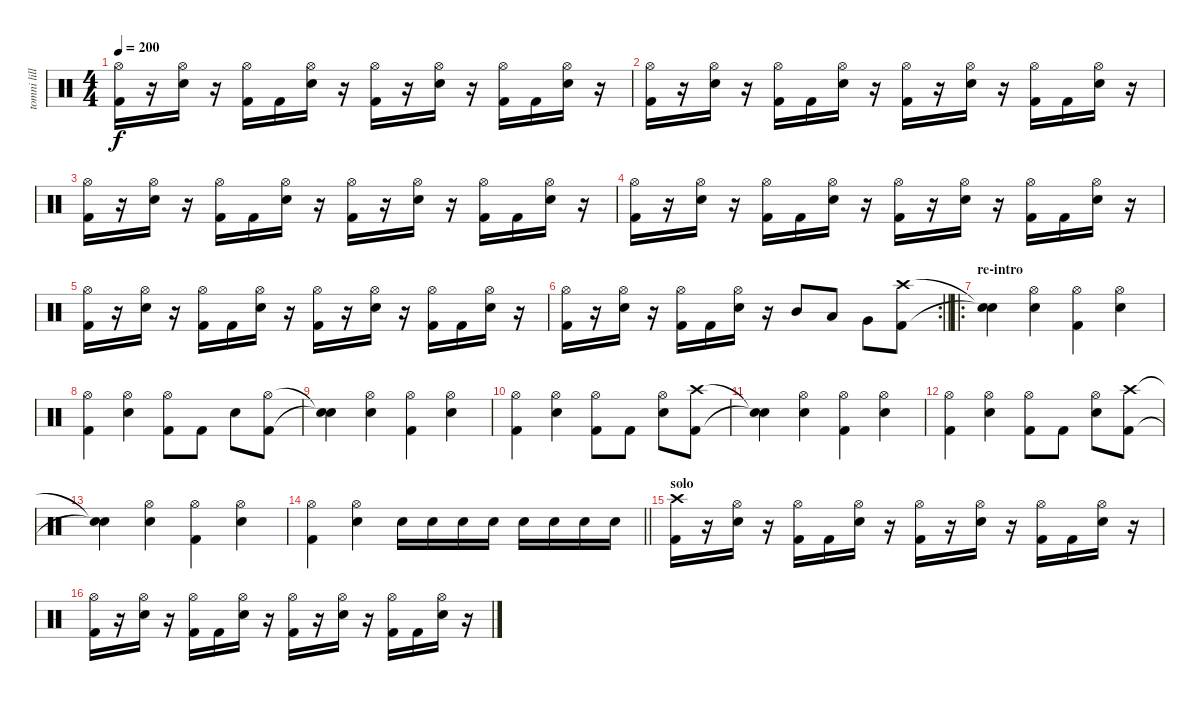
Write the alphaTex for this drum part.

\track ("tomni lillmann" "tomni lill") {instrument percussion}
\staff {score}
\articulation defaults
\ts (4 4)
\tempo 200
\clef neutral
\ks c
("Hi-Hat (open)" "Kick (hit) 2").16{dy f} r.16 ("Hi-Hat (open)" "Snare (hit) 2").16 r.16 ("Hi-Hat (open)" "Kick (hit) 2").16 "Kick (hit) 2".16 ("Hi-Hat (open)" "Snare (hit) 2").16 r.16 ("Hi-Hat (open)" "Kick (hit) 2").16 r.16 ("Hi-Hat (open)" "Snare (hit) 2").16 r.16 ("Hi-Hat (open)" "Kick (hit) 2").16 "Kick (hit) 2".16 ("Hi-Hat (open)" "Snare (hit) 2").16 r.16 |
("Hi-Hat (open)" "Kick (hit) 2").16 r.16 ("Hi-Hat (open)" "Snare (hit) 2").16 r.16 ("Hi-Hat (open)" "Kick (hit) 2").16 "Kick (hit) 2".16 ("Hi-Hat (open)" "Snare (hit) 2").16 r.16 ("Hi-Hat (open)" "Kick (hit) 2").16 r.16 ("Hi-Hat (open)" "Snare (hit) 2").16 r.16 ("Hi-Hat (open)" "Kick (hit) 2").16 "Kick (hit) 2".16 ("Hi-Hat (open)" "Snare (hit) 2").16 r.16 |
("Hi-Hat (open)" "Kick (hit) 2").16 r.16 ("Hi-Hat (open)" "Snare (hit) 2").16 r.16 ("Hi-Hat (open)" "Kick (hit) 2").16 "Kick (hit) 2".16 ("Hi-Hat (open)" "Snare (hit) 2").16 r.16 ("Hi-Hat (open)" "Kick (hit) 2").16 r.16 ("Hi-Hat (open)" "Snare (hit) 2").16 r.16 ("Hi-Hat (open)" "Kick (hit) 2").16 "Kick (hit) 2".16 ("Hi-Hat (open)" "Snare (hit) 2").16 r.16 |
("Hi-Hat (open)" "Kick (hit) 2").16 r.16 ("Hi-Hat (open)" "Snare (hit) 2").16 r.16 ("Hi-Hat (open)" "Kick (hit) 2").16 "Kick (hit) 2".16 ("Hi-Hat (open)" "Snare (hit) 2").16 r.16 ("Hi-Hat (open)" "Kick (hit) 2").16 r.16 ("Hi-Hat (open)" "Snare (hit) 2").16 r.16 ("Hi-Hat (open)" "Kick (hit) 2").16 "Kick (hit) 2".16 ("Hi-Hat (open)" "Snare (hit) 2").16 r.16 |
("Hi-Hat (open)" "Kick (hit) 2").16 r.16 ("Hi-Hat (open)" "Snare (hit) 2").16 r.16 ("Hi-Hat (open)" "Kick (hit) 2").16 "Kick (hit) 2".16 ("Hi-Hat (open)" "Snare (hit) 2").16 r.16 ("Hi-Hat (open)" "Kick (hit) 2").16 r.16 ("Hi-Hat (open)" "Snare (hit) 2").16 r.16 ("Hi-Hat (open)" "Kick (hit) 2").16 "Kick (hit) 2".16 ("Hi-Hat (open)" "Snare (hit) 2").16 r.16 |
\rc 2
\barLineRight lightlight
("Hi-Hat (open)" "Kick (hit) 2").16 r.16 ("Hi-Hat (open)" "Snare (hit) 2").16 r.16 ("Hi-Hat (open)" "Kick (hit) 2").16 "Kick (hit) 2".16 ("Hi-Hat (open)" "Snare (hit) 2").16 r.16 "Mid Tom (hit)".8 "Low Tom (hit)".8 "Very Low Tom (hit)".8 ("Crash high (hit)" "Kick (hit) 2").8 |
\ro
\section ("" "re-intro")
("Snare (hit)"{t} "Snare (hit)"{t}).4 ("Hi-Hat (open)" "Snare (hit) 2").4 ("Hi-Hat (open)" "Kick (hit) 2").4 ("Hi-Hat (open)" "Snare (hit) 2").4 |
("Hi-Hat (open)" "Kick (hit) 2").4 ("Hi-Hat (open)" "Snare (hit) 2").4 ("Hi-Hat (open)" "Kick (hit) 2").8 "Kick (hit) 2".8 "Snare (hit) 2".8 ("Hi-Hat (open)" "Kick (hit) 2").8 |
("Snare (hit)"{t} "Snare (hit)"{t}).4 ("Hi-Hat (open)" "Snare (hit) 2").4 ("Hi-Hat (open)" "Kick (hit) 2").4 ("Hi-Hat (open)" "Snare (hit) 2").4 |
("Hi-Hat (open)" "Kick (hit) 2").4 ("Hi-Hat (open)" "Snare (hit) 2").4 ("Hi-Hat (open)" "Kick (hit) 2").8 "Kick (hit) 2".8 ("Hi-Hat (open)" "Snare (hit) 2").8 ("Crash high (hit)" "Kick (hit) 2").8 |
("Snare (hit)"{t} "Snare (hit)"{t}).4 ("Hi-Hat (open)" "Snare (hit) 2").4 ("Hi-Hat (open)" "Kick (hit) 2").4 ("Hi-Hat (open)" "Snare (hit) 2").4 |
("Hi-Hat (open)" "Kick (hit) 2").4 ("Hi-Hat (open)" "Snare (hit) 2").4 ("Hi-Hat (open)" "Kick (hit) 2").8 "Kick (hit) 2".8 ("Hi-Hat (open)" "Snare (hit) 2").8 ("Crash high (hit)" "Kick (hit) 2").8 |
("Snare (hit)"{t} "Snare (hit)"{t}).4 ("Hi-Hat (open)" "Snare (hit) 2").4 ("Hi-Hat (open)" "Kick (hit) 2").4 ("Hi-Hat (open)" "Snare (hit) 2").4 |
\barLineRight lightlight
("Hi-Hat (open)" "Kick (hit) 2").4 ("Hi-Hat (open)" "Snare (hit) 2").4 "Snare (hit) 2".16 "Snare (hit) 2".16 "Snare (hit) 2".16 "Snare (hit) 2".16 "Snare (hit) 2".16 "Snare (hit) 2".16 "Snare (hit) 2".16 "Snare (hit) 2".16 |
\section ("" "solo")
("Crash high (hit)" "Kick (hit) 2").16 r.16 ("Hi-Hat (open)" "Snare (hit) 2").16 r.16 ("Hi-Hat (open)" "Kick (hit) 2").16 "Kick (hit) 2".16 ("Hi-Hat (open)" "Snare (hit) 2").16 r.16 ("Hi-Hat (open)" "Kick (hit) 2").16 r.16 ("Hi-Hat (open)" "Snare (hit) 2").16 r.16 ("Hi-Hat (open)" "Kick (hit) 2").16 "Kick (hit) 2".16 ("Hi-Hat (open)" "Snare (hit) 2").16 r.16 |
("Hi-Hat (open)" "Kick (hit) 2").16 r.16 ("Hi-Hat (open)" "Snare (hit) 2").16 r.16 ("Hi-Hat (open)" "Kick (hit) 2").16 "Kick (hit) 2".16 ("Hi-Hat (open)" "Snare (hit) 2").16 r.16 ("Hi-Hat (open)" "Kick (hit) 2").16 r.16 ("Hi-Hat (open)" "Snare (hit) 2").16 r.16 ("Hi-Hat (open)" "Kick (hit) 2").16 "Kick (hit) 2".16 ("Hi-Hat (open)" "Snare (hit) 2").16 r.16
